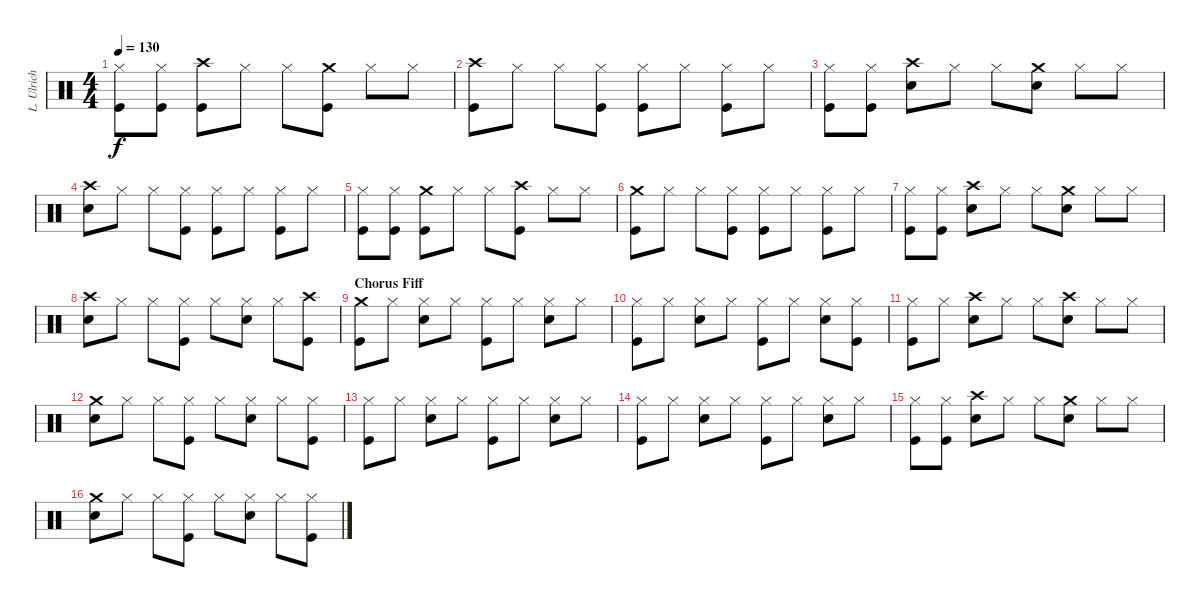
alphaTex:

\track ("L. Ulrich" "L. Ulrich") {instrument percussion}
\staff {score}
\articulation defaults
\ts (4 4)
\tempo 130
\clef neutral
\ks c
("Hi-Hat (closed)" "Kick (hit)").8{dy f} ("Hi-Hat (closed)" "Kick (hit)").8 ("Crash high (hit)" "Kick (hit)").8 "Hi-Hat (closed)".8 "Hi-Hat (closed)".8 ("Crash medium (hit)" "Kick (hit)").8 "Hi-Hat (closed)".8 "Hi-Hat (closed)".8 |
("Crash high (hit)" "Kick (hit)").8 "Hi-Hat (closed)".8 "Hi-Hat (closed)".8 ("Hi-Hat (closed)" "Kick (hit)").8 ("Hi-Hat (closed)" "Kick (hit)").8 "Hi-Hat (closed)".8 ("Hi-Hat (closed)" "Kick (hit)").8 "Hi-Hat (closed)".8 |
("Hi-Hat (closed)" "Kick (hit)").8 ("Hi-Hat (closed)" "Kick (hit)").8 ("Crash high (hit)" "Snare (hit) 2").8 "Hi-Hat (closed)".8 "Hi-Hat (closed)".8 ("Crash medium (hit)" "Snare (hit) 2").8 "Hi-Hat (closed)".8 "Hi-Hat (closed)".8 |
("Crash high (hit)" "Snare (hit) 2").8 "Hi-Hat (closed)".8 "Hi-Hat (closed)".8 ("Hi-Hat (closed)" "Kick (hit)").8 ("Hi-Hat (closed)" "Kick (hit)").8 "Hi-Hat (closed)".8 ("Hi-Hat (closed)" "Kick (hit)").8 "Hi-Hat (closed)".8 |
("Hi-Hat (closed)" "Kick (hit)").8 ("Hi-Hat (closed)" "Kick (hit)").8 ("Crash medium (hit)" "Kick (hit)").8 "Hi-Hat (closed)".8 "Hi-Hat (closed)".8 ("Crash high (hit)" "Kick (hit)").8 "Hi-Hat (closed)".8 "Hi-Hat (closed)".8 |
("Crash medium (hit)" "Kick (hit)").8 "Hi-Hat (closed)".8 "Hi-Hat (closed)".8 ("Hi-Hat (closed)" "Kick (hit)").8 ("Hi-Hat (closed)" "Kick (hit)").8 "Hi-Hat (closed)".8 ("Hi-Hat (closed)" "Kick (hit)").8 "Hi-Hat (closed)".8 |
("Hi-Hat (closed)" "Kick (hit)").8 ("Hi-Hat (closed)" "Kick (hit)").8 ("Crash high (hit)" "Snare (hit) 2").8 "Hi-Hat (closed)".8 "Hi-Hat (closed)".8 ("Crash medium (hit)" "Snare (hit) 2").8 "Hi-Hat (closed)".8 "Hi-Hat (closed)".8 |
("Crash high (hit)" "Snare (hit) 2").8 "Hi-Hat (closed)".8 "Hi-Hat (closed)".8 ("Hi-Hat (closed)" "Kick (hit)").8 "Hi-Hat (closed)".8 ("Hi-Hat (closed)" "Snare (hit) 2").8 "Hi-Hat (closed)".8 ("Crash high (hit)" "Kick (hit)").8 |
\section ("" "Chorus Fiff")
("Crash medium (hit)" "Kick (hit)").8 "Hi-Hat (closed)".8 ("Hi-Hat (closed)" "Snare (hit) 2").8 "Hi-Hat (closed)".8 ("Hi-Hat (closed)" "Kick (hit)").8 "Hi-Hat (closed)".8 ("Hi-Hat (closed)" "Snare (hit) 2").8 "Hi-Hat (closed)".8 |
("Hi-Hat (closed)" "Kick (hit)").8 "Hi-Hat (closed)".8 ("Hi-Hat (closed)" "Snare (hit) 2").8 "Hi-Hat (closed)".8 ("Hi-Hat (closed)" "Kick (hit)").8 "Hi-Hat (closed)".8 ("Hi-Hat (closed)" "Snare (hit) 2").8 ("Hi-Hat (closed)" "Kick (hit)").8 |
("Hi-Hat (closed)" "Kick (hit)").8 "Hi-Hat (closed)".8 ("Crash high (hit)" "Snare (hit) 2").8 "Hi-Hat (closed)".8 "Hi-Hat (closed)".8 ("Crash high (hit)" "Snare (hit) 2").8 "Hi-Hat (closed)".8 "Hi-Hat (closed)".8 |
("Crash medium (hit)" "Snare (hit) 2").8 "Hi-Hat (closed)".8 "Hi-Hat (closed)".8 ("Hi-Hat (closed)" "Kick (hit)").8 "Hi-Hat (closed)".8 ("Hi-Hat (closed)" "Snare (hit) 2").8 "Hi-Hat (closed)".8 ("Hi-Hat (closed)" "Kick (hit)").8 |
("Hi-Hat (closed)" "Kick (hit)").8 "Hi-Hat (closed)".8 ("Hi-Hat (closed)" "Snare (hit) 2").8 "Hi-Hat (closed)".8 ("Hi-Hat (closed)" "Kick (hit)").8 "Hi-Hat (closed)".8 ("Hi-Hat (closed)" "Snare (hit) 2").8 "Hi-Hat (closed)".8 |
("Hi-Hat (closed)" "Kick (hit)").8 "Hi-Hat (closed)".8 ("Hi-Hat (closed)" "Snare (hit) 2").8 "Hi-Hat (closed)".8 ("Hi-Hat (closed)" "Kick (hit)").8 "Hi-Hat (closed)".8 ("Hi-Hat (closed)" "Snare (hit) 2").8 "Hi-Hat (closed)".8 |
("Hi-Hat (closed)" "Kick (hit)").8 ("Hi-Hat (closed)" "Kick (hit)").8 ("Crash high (hit)" "Snare (hit) 2").8 "Hi-Hat (closed)".8 "Hi-Hat (closed)".8 ("Crash medium (hit)" "Snare (hit) 2").8 "Hi-Hat (closed)".8 "Hi-Hat (closed)".8 |
("Crash medium (hit)" "Snare (hit) 2").8 "Hi-Hat (closed)".8 "Hi-Hat (closed)".8 ("Hi-Hat (closed)" "Kick (hit)").8 "Hi-Hat (closed)".8 ("Hi-Hat (closed)" "Snare (hit) 2").8 "Hi-Hat (closed)".8 ("Hi-Hat (closed)" "Kick (hit)").8
